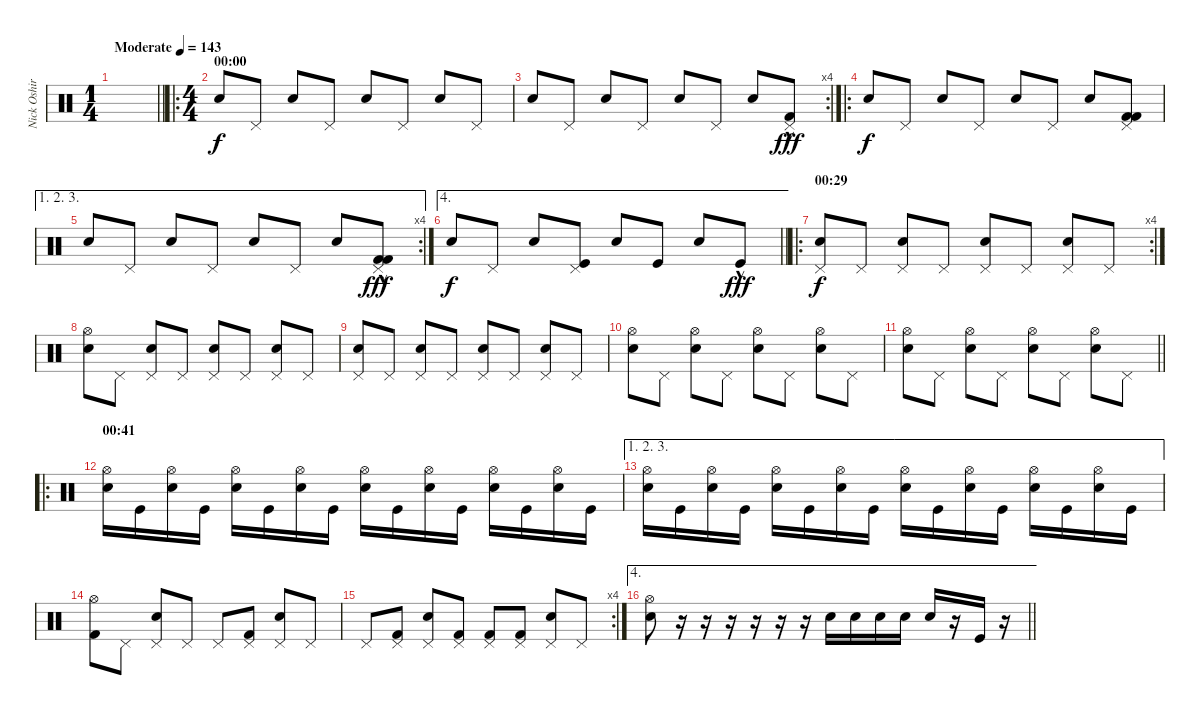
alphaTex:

\track ("Nick Oshiro" "Nick Oshir") {instrument percussion}
\staff {score}
\articulation defaults
\ts (1 4)
\tempo (143 "Moderate")
\clef neutral
\barLineRight lightlight
\ks c
|
\ro
\ts (4 4)
\section ("" "00:00")
"Snare (hit) 2".8 "Pedal Hi-Hat (hit)".8 "Snare (hit) 2".8 "Pedal Hi-Hat (hit)".8 "Snare (hit) 2".8 "Pedal Hi-Hat (hit)".8 "Snare (hit) 2".8 "Pedal Hi-Hat (hit)".8 |
\rc 4 "Snare (hit) 2".8 "Pedal Hi-Hat (hit)".8 "Snare (hit) 2".8 "Pedal Hi-Hat (hit)".8 "Snare (hit) 2".8 "Pedal Hi-Hat (hit)".8 "Snare (hit) 2".8
("Pedal Hi-Hat (hit)" "Kick (hit) 2"{hac}).8{dy fff} |
\ro "Snare (hit) 2".8{dy f} "Pedal Hi-Hat (hit)".8 "Snare (hit) 2".8 "Pedal Hi-Hat (hit)".8 "Snare (hit) 2".8 "Pedal Hi-Hat (hit)".8 "Snare (hit) 2".8
("Pedal Hi-Hat (hit)" "Kick (hit) 2" "Kick (hit) 2").8 |
\ae (1 2 3)
\rc 4 "Snare (hit) 2".8 "Pedal Hi-Hat (hit)".8 "Snare (hit) 2".8 "Pedal Hi-Hat (hit)".8 "Snare (hit) 2".8 "Pedal Hi-Hat (hit)".8 "Snare (hit) 2".8
("Pedal Hi-Hat (hit)" "Kick (hit) 2"{hac} "Kick (hit) 2").8{dy fff} |
\ae 4
\barLineRight lightlight "Snare (hit) 2".8{dy f} "Pedal Hi-Hat (hit)".8 "Snare (hit) 2".8
("Pedal Hi-Hat (hit)" "Kick (hit)").8 "Snare (hit) 2".8 "Kick (hit)".8 "Snare (hit) 2".8 "Kick (hit)"{hac}.8{dy fff} |
\ro
\rc 4
\section ("" "00:29")
("Pedal Hi-Hat (hit)" "Snare (hit) 2").8{dy f} "Pedal Hi-Hat (hit)".8 ("Pedal Hi-Hat (hit)" "Snare (hit) 2").8 "Pedal Hi-Hat (hit)".8 ("Pedal Hi-Hat (hit)" "Snare (hit) 2").8 "Pedal Hi-Hat (hit)".8 ("Pedal Hi-Hat (hit)" "Snare (hit) 2").8 "Pedal Hi-Hat (hit)".8 |
("Hi-Hat (open)" "Snare (hit) 2").8 "Pedal Hi-Hat (hit)".8 ("Pedal Hi-Hat (hit)" "Snare (hit) 2").8 "Pedal Hi-Hat (hit)".8 ("Pedal Hi-Hat (hit)" "Snare (hit) 2").8 "Pedal Hi-Hat (hit)".8 ("Pedal Hi-Hat (hit)" "Snare (hit) 2").8 "Pedal Hi-Hat (hit)".8 |
("Pedal Hi-Hat (hit)" "Snare (hit) 2").8 "Pedal Hi-Hat (hit)".8 ("Pedal Hi-Hat (hit)" "Snare (hit) 2").8 "Pedal Hi-Hat (hit)".8 ("Pedal Hi-Hat (hit)" "Snare (hit) 2").8 "Pedal Hi-Hat (hit)".8 ("Pedal Hi-Hat (hit)" "Snare (hit) 2").8 "Pedal Hi-Hat (hit)".8 |
("Hi-Hat (open)" "Snare (hit) 2").8 "Pedal Hi-Hat (hit)".8 ("Hi-Hat (open)" "Snare (hit) 2").8 "Pedal Hi-Hat (hit)".8 ("Hi-Hat (open)" "Snare (hit) 2").8 "Pedal Hi-Hat (hit)".8 ("Hi-Hat (open)" "Snare (hit) 2").8 "Pedal Hi-Hat (hit)".8 |
\barLineRight lightlight
("Hi-Hat (open)" "Snare (hit) 2").8 "Pedal Hi-Hat (hit)".8 ("Hi-Hat (open)" "Snare (hit) 2").8 "Pedal Hi-Hat (hit)".8 ("Hi-Hat (open)" "Snare (hit) 2").8 "Pedal Hi-Hat (hit)".8 ("Hi-Hat (open)" "Snare (hit) 2").8 "Pedal Hi-Hat (hit)".8 |
\ro
\section ("" "00:41")
("Snare (hit) 2" "Hi-Hat (open)").16 "Kick (hit)".16 ("Snare (hit) 2" "Hi-Hat (open)").16 "Kick (hit)".16 ("Snare (hit) 2" "Hi-Hat (open)").16 "Kick (hit)".16 ("Snare (hit) 2" "Hi-Hat (open)").16 "Kick (hit)".16 ("Snare (hit) 2" "Hi-Hat (open)").16 "Kick (hit)".16 ("Snare (hit) 2" "Hi-Hat (open)").16 "Kick (hit)".16 ("Snare (hit) 2" "Hi-Hat (open)").16 "Kick (hit)".16 ("Snare (hit) 2" "Hi-Hat (open)").16 "Kick (hit)".16 |
\ae (1 2 3)
("Snare (hit) 2" "Hi-Hat (open)").16 "Kick (hit)".16 ("Snare (hit) 2" "Hi-Hat (open)").16 "Kick (hit)".16 ("Snare (hit) 2" "Hi-Hat (open)").16 "Kick (hit)".16 ("Snare (hit) 2" "Hi-Hat (open)").16 "Kick (hit)".16 ("Snare (hit) 2" "Hi-Hat (open)").16 "Kick (hit)".16 ("Snare (hit) 2" "Hi-Hat (open)").16 "Kick (hit)".16 ("Snare (hit) 2" "Hi-Hat (open)").16 "Kick (hit)".16 ("Snare (hit) 2" "Hi-Hat (open)").16 "Kick (hit)".16 |
("Hi-Hat (open)" "Kick (hit) 2").8 "Pedal Hi-Hat (hit)".8 ("Pedal Hi-Hat (hit)" "Snare (hit) 2").8 "Pedal Hi-Hat (hit)".8 "Pedal Hi-Hat (hit)".8 ("Pedal Hi-Hat (hit)" "Kick (hit) 2").8 ("Pedal Hi-Hat (hit)" "Snare (hit) 2").8 "Pedal Hi-Hat (hit)".8 |
\rc 4 "Pedal Hi-Hat (hit)".8
("Pedal Hi-Hat (hit)" "Kick (hit) 2").8 ("Pedal Hi-Hat (hit)" "Snare (hit) 2").8 ("Pedal Hi-Hat (hit)" "Kick (hit) 2").8 ("Pedal Hi-Hat (hit)" "Kick (hit) 2").8 ("Pedal Hi-Hat (hit)" "Kick (hit) 2").8 ("Pedal Hi-Hat (hit)" "Snare (hit) 2").8 "Pedal Hi-Hat (hit)".8 |
\ae 4
\barLineRight lightlight
("Snare (hit) 2" "Hi-Hat (open)").8 r.16 r.16 r.16 r.16 r.16 r.16 "Electric Snare (hit)".16 "Electric Snare (hit)".16 "Electric Snare (hit)".16 "Electric Snare (hit)".16 "Electric Snare (hit)".16 r.16 "Kick (hit)".16 r.16
